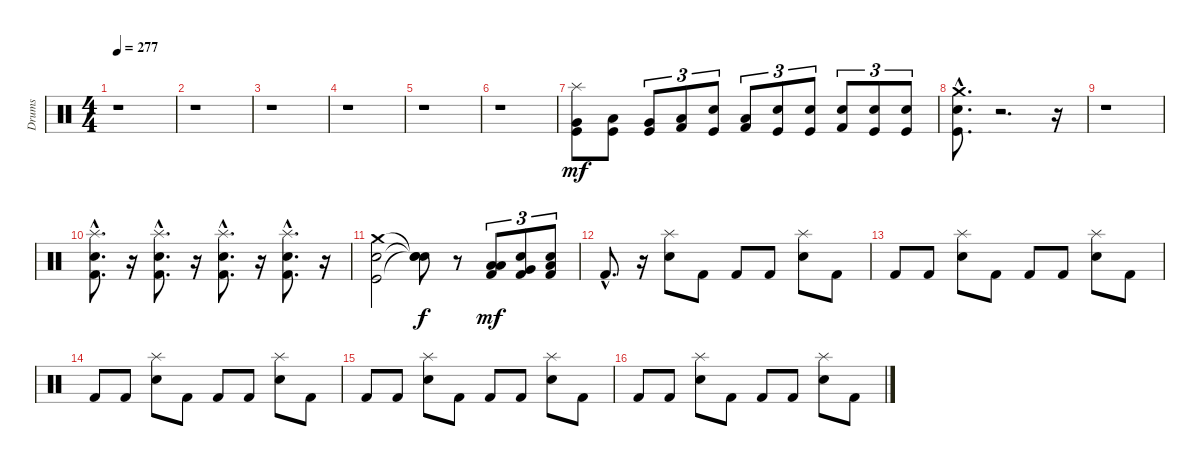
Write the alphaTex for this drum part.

\track ("Drums" "Drums") {instrument percussion}
\staff {score}
\articulation defaults
\ts (4 4)
\tempo 277
\clef neutral
\ks c
r.1{dy mf} |
r.1 |
r.1 |
r.1 |
r.1 |
r.1 |
("Splash (hit)" "Very Low Tom (hit)" "Kick (hit)").8 ("Kick (hit)" "Low Floor Tom (hit)").8 ("Kick (hit)" "Very Low Tom (hit)").8{tu (3 2)} ("Kick (hit) 2" "Low Floor Tom (hit)").8{tu (3 2)} ("Kick (hit)" "Electric Snare (hit)").8{tu (3 2)} ("Kick (hit) 2" "Low Floor Tom (hit)").8{tu (3 2)} ("Electric Snare (hit)" "Kick (hit)").8{tu (3 2)} ("Snare (hit) 2" "Kick (hit)").8{tu (3 2)} ("Electric Snare (hit)" "Kick (hit) 2").8{tu (3 2)} ("Kick (hit)" "Snare (hit) 2").8{tu (3 2)} ("Kick (hit)" "Electric Snare (hit)").8{tu (3 2)} |
("Kick (hit)"{hac} "Crash medium (hit)"{hac} "Snare (hit) 2"{hac}).8{d} r.2{d} r.16 |
r.1 |
("Splash (hit)"{hac} "Kick (hit) 2"{hac} "Electric Snare (hit)"{hac}).8{d} r.16 ("Kick (hit) 2"{hac} "Electric Snare (hit)"{hac} "Splash (hit)"{hac}).8{d} r.16 ("Kick (hit) 2"{hac} "Snare (hit) 2"{hac} "Splash (hit)"{hac}).8{d} r.16 ("Snare (hit) 2"{hac} "Splash (hit)"{hac} "Kick (hit) 2"{hac}).8{d} r.16 |
("Crash medium (hit)" "Snare (hit) 2" "Kick (hit)").2 ("Snare (hit)"{t} "Snare (hit)"{t} "Snare (hit)"{t}).8{dy f} r.8 ("Low Floor Tom (hit)" "Low Tom (hit)" "Kick (hit) 2").8{tu (3 2) dy mf} ("Very Low Tom (hit)" "Electric Snare (hit)" "Kick (hit) 2").8{tu (3 2)} ("Snare (hit) 2" "Low Floor Tom (hit)" "Kick (hit) 2").8{tu (3 2)} |
"Kick (hit) 2"{hac}.8{d} r.16 ("Electric Snare (hit)" "Splash (hit)").8 "Kick (hit) 2".8 "Kick (hit) 2".8 "Kick (hit) 2".8 ("Splash (hit)" "Electric Snare (hit)").8 "Kick (hit) 2".8 |
"Kick (hit) 2".8 "Kick (hit) 2".8 ("Electric Snare (hit)" "Splash (hit)").8 "Kick (hit) 2".8 "Kick (hit) 2".8 "Kick (hit) 2".8 ("Electric Snare (hit)" "Splash (hit)").8 "Kick (hit) 2".8 |
"Kick (hit) 2".8 "Kick (hit) 2".8 ("Electric Snare (hit)" "Splash (hit)").8 "Kick (hit) 2".8 "Kick (hit) 2".8 "Kick (hit) 2".8 ("Electric Snare (hit)" "Splash (hit)").8 "Kick (hit) 2".8 |
"Kick (hit) 2".8 "Kick (hit) 2".8 ("Electric Snare (hit)" "Splash (hit)").8 "Kick (hit) 2".8 "Kick (hit) 2".8 "Kick (hit) 2".8 ("Splash (hit)" "Electric Snare (hit)").8 "Kick (hit) 2".8 |
"Kick (hit) 2".8 "Kick (hit) 2".8 ("Splash (hit)" "Electric Snare (hit)").8 "Kick (hit) 2".8 "Kick (hit) 2".8 "Kick (hit) 2".8 ("Electric Snare (hit)" "Splash (hit)").8 "Kick (hit) 2".8
